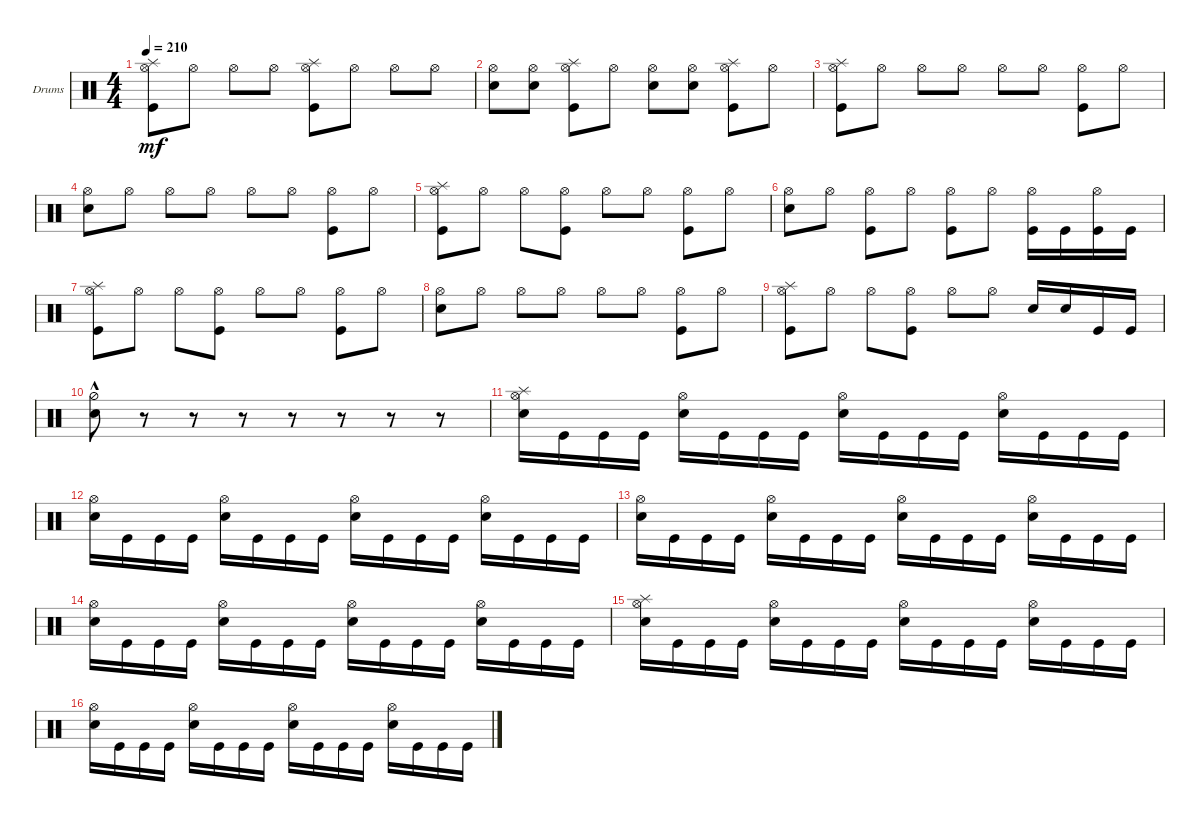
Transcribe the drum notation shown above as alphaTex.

\bracketExtendMode groupsimilarinstruments
\firstSystemTrackNameOrientation horizontal
\otherSystemsTrackNameOrientation horizontal
\track ("Drumkit" "Drums") {instrument percussion}
\staff {score}
\articulation defaults
\ts (4 4)
\tempo 210
\clef neutral
\ks c
("Kick (hit)" "Hi-Hat (open)" "Splash (hit)").8{dy mf} "Hi-Hat (open)".8 "Hi-Hat (open)".8 "Hi-Hat (open)".8 ("Kick (hit)" "Hi-Hat (open)" "Splash (hit)").8 "Hi-Hat (open)".8 "Hi-Hat (open)".8 "Hi-Hat (open)".8 |
("Snare (hit) 2" "Hi-Hat (open)").8 ("Snare (hit) 2" "Hi-Hat (open)").8 ("Kick (hit)" "Hi-Hat (open)" "Splash (hit)").8 "Hi-Hat (open)".8 ("Snare (hit) 2" "Hi-Hat (open)").8 ("Snare (hit) 2" "Hi-Hat (open)").8 ("Kick (hit)" "Hi-Hat (open)" "Splash (hit)").8 "Hi-Hat (open)".8 |
("Kick (hit)" "Hi-Hat (open)" "Splash (hit)").8 "Hi-Hat (open)".8 "Hi-Hat (open)".8 "Hi-Hat (open)".8 "Hi-Hat (open)".8 "Hi-Hat (open)".8 ("Kick (hit)" "Hi-Hat (open)").8 "Hi-Hat (open)".8 |
("Snare (hit) 2" "Hi-Hat (open)").8 "Hi-Hat (open)".8 "Hi-Hat (open)".8 "Hi-Hat (open)".8 "Hi-Hat (open)".8 "Hi-Hat (open)".8 ("Kick (hit)" "Hi-Hat (open)").8 "Hi-Hat (open)".8 |
("Kick (hit)" "Hi-Hat (open)" "Splash (hit)").8 "Hi-Hat (open)".8 "Hi-Hat (open)".8 ("Kick (hit)" "Hi-Hat (open)").8 "Hi-Hat (open)".8 "Hi-Hat (open)".8 ("Kick (hit)" "Hi-Hat (open)").8 "Hi-Hat (open)".8 |
("Snare (hit) 2" "Hi-Hat (open)").8 "Hi-Hat (open)".8 ("Kick (hit)" "Hi-Hat (open)").8 "Hi-Hat (open)".8 ("Kick (hit)" "Hi-Hat (open)").8 "Hi-Hat (open)".8 ("Kick (hit)" "Hi-Hat (open)").16 "Kick (hit)".16 ("Kick (hit)" "Hi-Hat (open)").16 "Kick (hit)".16 |
("Kick (hit)" "Hi-Hat (open)" "Splash (hit)").8 "Hi-Hat (open)".8 "Hi-Hat (open)".8 ("Kick (hit)" "Hi-Hat (open)").8 "Hi-Hat (open)".8 "Hi-Hat (open)".8 ("Kick (hit)" "Hi-Hat (open)").8 "Hi-Hat (open)".8 |
("Snare (hit) 2" "Hi-Hat (open)").8 "Hi-Hat (open)".8 "Hi-Hat (open)".8 "Hi-Hat (open)".8 "Hi-Hat (open)".8 "Hi-Hat (open)".8 ("Kick (hit)" "Hi-Hat (open)").8 "Hi-Hat (open)".8 |
("Kick (hit)" "Hi-Hat (open)" "Splash (hit)").8 "Hi-Hat (open)".8 "Hi-Hat (open)".8 ("Hi-Hat (open)" "Kick (hit)").8 "Hi-Hat (open)".8 "Hi-Hat (open)".8 "Snare (hit) 2".16 "Snare (hit) 2".16 "Kick (hit)".16 "Kick (hit)".16 |
("Snare (hit) 2"{hac} "Hi-Hat (half)").8 r.8 r.8 r.8 r.8 r.8 r.8 r.8 |
("Snare (hit) 2" "Hi-Hat (open)" "Splash (hit)").16 "Kick (hit)".16 "Kick (hit)".16 "Kick (hit)".16 ("Snare (hit) 2" "Hi-Hat (open)").16 "Kick (hit)".16 "Kick (hit)".16 "Kick (hit)".16 ("Snare (hit) 2" "Hi-Hat (open)").16 "Kick (hit)".16 "Kick (hit)".16 "Kick (hit)".16 ("Snare (hit) 2" "Hi-Hat (open)").16 "Kick (hit)".16 "Kick (hit)".16 "Kick (hit)".16 |
("Snare (hit) 2" "Hi-Hat (open)").16 "Kick (hit)".16 "Kick (hit)".16 "Kick (hit)".16 ("Snare (hit) 2" "Hi-Hat (open)").16 "Kick (hit)".16 "Kick (hit)".16 "Kick (hit)".16 ("Snare (hit) 2" "Hi-Hat (open)").16 "Kick (hit)".16 "Kick (hit)".16 "Kick (hit)".16 ("Snare (hit) 2" "Hi-Hat (open)").16 "Kick (hit)".16 "Kick (hit)".16 "Kick (hit)".16 |
("Snare (hit) 2" "Hi-Hat (open)").16 "Kick (hit)".16 "Kick (hit)".16 "Kick (hit)".16 ("Snare (hit) 2" "Hi-Hat (open)").16 "Kick (hit)".16 "Kick (hit)".16 "Kick (hit)".16 ("Snare (hit) 2" "Hi-Hat (open)").16 "Kick (hit)".16 "Kick (hit)".16 "Kick (hit)".16 ("Snare (hit) 2" "Hi-Hat (open)").16 "Kick (hit)".16 "Kick (hit)".16 "Kick (hit)".16 |
("Snare (hit) 2" "Hi-Hat (open)").16 "Kick (hit)".16 "Kick (hit)".16 "Kick (hit)".16 ("Snare (hit) 2" "Hi-Hat (open)").16 "Kick (hit)".16 "Kick (hit)".16 "Kick (hit)".16 ("Snare (hit) 2" "Hi-Hat (open)").16 "Kick (hit)".16 "Kick (hit)".16 "Kick (hit)".16 ("Snare (hit) 2" "Hi-Hat (open)").16 "Kick (hit)".16 "Kick (hit)".16 "Kick (hit)".16 |
("Snare (hit) 2" "Hi-Hat (open)" "Splash (hit)").16 "Kick (hit)".16 "Kick (hit)".16 "Kick (hit)".16 ("Snare (hit) 2" "Hi-Hat (open)").16 "Kick (hit)".16 "Kick (hit)".16 "Kick (hit)".16 ("Snare (hit) 2" "Hi-Hat (open)").16 "Kick (hit)".16 "Kick (hit)".16 "Kick (hit)".16 ("Snare (hit) 2" "Hi-Hat (open)").16 "Kick (hit)".16 "Kick (hit)".16 "Kick (hit)".16 |
("Snare (hit) 2" "Hi-Hat (open)").16 "Kick (hit)".16 "Kick (hit)".16 "Kick (hit)".16 ("Snare (hit) 2" "Hi-Hat (open)").16 "Kick (hit)".16 "Kick (hit)".16 "Kick (hit)".16 ("Snare (hit) 2" "Hi-Hat (open)").16 "Kick (hit)".16 "Kick (hit)".16 "Kick (hit)".16 ("Snare (hit) 2" "Hi-Hat (open)").16 "Kick (hit)".16 "Kick (hit)".16 "Kick (hit)".16
